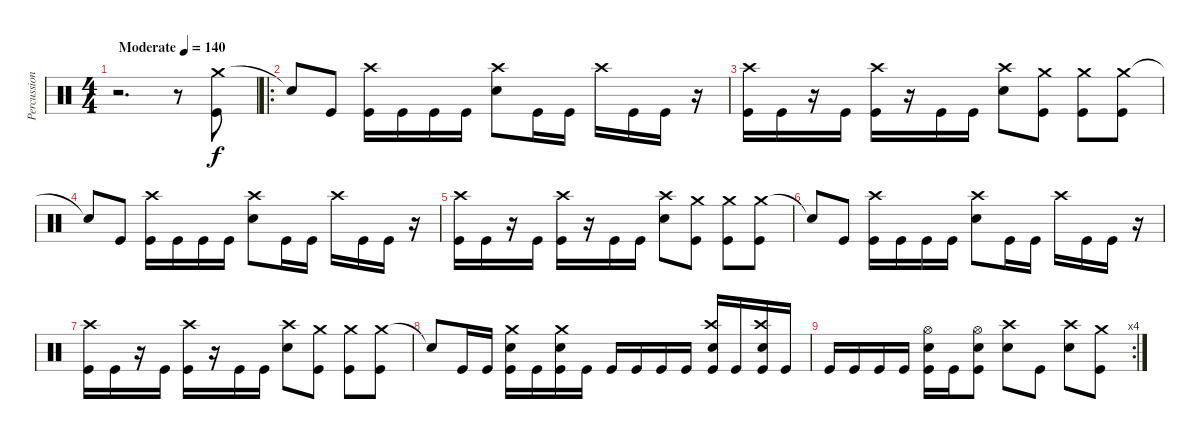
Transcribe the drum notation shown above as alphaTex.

\track ("Percussion" "Percussion") {instrument percussion}
\staff {score}
\articulation defaults
\ts (4 4)
\tempo (140 "Moderate")
\clef neutral
\ks c
r.2{d dy f} r.8 ("Crash medium (hit)" "Kick (hit)").8 |
\ro "Snare (hit)"{t}.8 "Kick (hit)".8
("Crash high (hit)" "Kick (hit)").16 "Kick (hit)".16 "Kick (hit)".16 "Kick (hit)".16 ("Crash high (hit)" "Electric Snare (hit)").8 "Kick (hit)".16 "Kick (hit)".16 "Crash high (hit)".16 "Kick (hit)".16 "Kick (hit)".16 r.16 |
("Crash high (hit)" "Kick (hit)").16 "Kick (hit)".16 r.16 "Kick (hit)".16 ("Crash high (hit)" "Kick (hit)").16 r.16 "Kick (hit)".16 "Kick (hit)".16 ("Crash high (hit)" "Electric Snare (hit)").8 ("Crash medium (hit)" "Kick (hit)").8 ("Crash medium (hit)" "Kick (hit)").8 ("Crash medium (hit)" "Kick (hit)").8 |
"Snare (hit)"{t}.8 "Kick (hit)".8 ("Crash high (hit)" "Kick (hit)").16 "Kick (hit)".16 "Kick (hit)".16 "Kick (hit)".16 ("Crash high (hit)" "Electric Snare (hit)").8 "Kick (hit)".16 "Kick (hit)".16 "Crash high (hit)".16 "Kick (hit)".16 "Kick (hit)".16 r.16 |
("Crash high (hit)" "Kick (hit)").16 "Kick (hit)".16 r.16 "Kick (hit)".16 ("Crash high (hit)" "Kick (hit)").16 r.16 "Kick (hit)".16 "Kick (hit)".16 ("Crash high (hit)" "Electric Snare (hit)").8 ("Crash medium (hit)" "Kick (hit)").8 ("Crash medium (hit)" "Kick (hit)").8 ("Crash medium (hit)" "Kick (hit)").8 |
"Snare (hit)"{t}.8 "Kick (hit)".8 ("Crash high (hit)" "Kick (hit)").16 "Kick (hit)".16 "Kick (hit)".16 "Kick (hit)".16 ("Crash high (hit)" "Electric Snare (hit)").8 "Kick (hit)".16 "Kick (hit)".16 "Crash high (hit)".16 "Kick (hit)".16 "Kick (hit)".16 r.16 |
("Crash high (hit)" "Kick (hit)").16 "Kick (hit)".16 r.16 "Kick (hit)".16 ("Crash high (hit)" "Kick (hit)").16 r.16 "Kick (hit)".16 "Kick (hit)".16 ("Crash high (hit)" "Electric Snare (hit)").8 ("Crash medium (hit)" "Kick (hit)").8 ("Crash medium (hit)" "Kick (hit)").8 ("Crash medium (hit)" "Kick (hit)").8 |
"Snare (hit)"{t}.8 "Kick (hit)".16 "Kick (hit)".16 ("Crash medium (hit)" "Electric Snare (hit)" "Kick (hit)").16 "Kick (hit)".16 ("Crash medium (hit)" "Electric Snare (hit)" "Kick (hit)").16 "Kick (hit)".16 "Kick (hit)".16 "Kick (hit)".16 "Kick (hit)".16 "Kick (hit)".16 ("Crash high (hit)" "Electric Snare (hit)" "Kick (hit)").16 "Kick (hit)".16 ("Crash high (hit)" "Electric Snare (hit)" "Kick (hit)").16 "Kick (hit)".16 |
\rc 4 "Kick (hit)".16 "Kick (hit)".16 "Kick (hit)".16 "Kick (hit)".16
("Hi-Hat (open)" "Electric Snare (hit)" "Kick (hit)").16 "Kick (hit)".16 ("Hi-Hat (open)" "Electric Snare (hit)" "Kick (hit)").8 ("Crash high (hit)" "Electric Snare (hit)").8 "Kick (hit)".8 ("Crash high (hit)" "Electric Snare (hit)").8 ("Crash medium (hit)" "Kick (hit)").8
